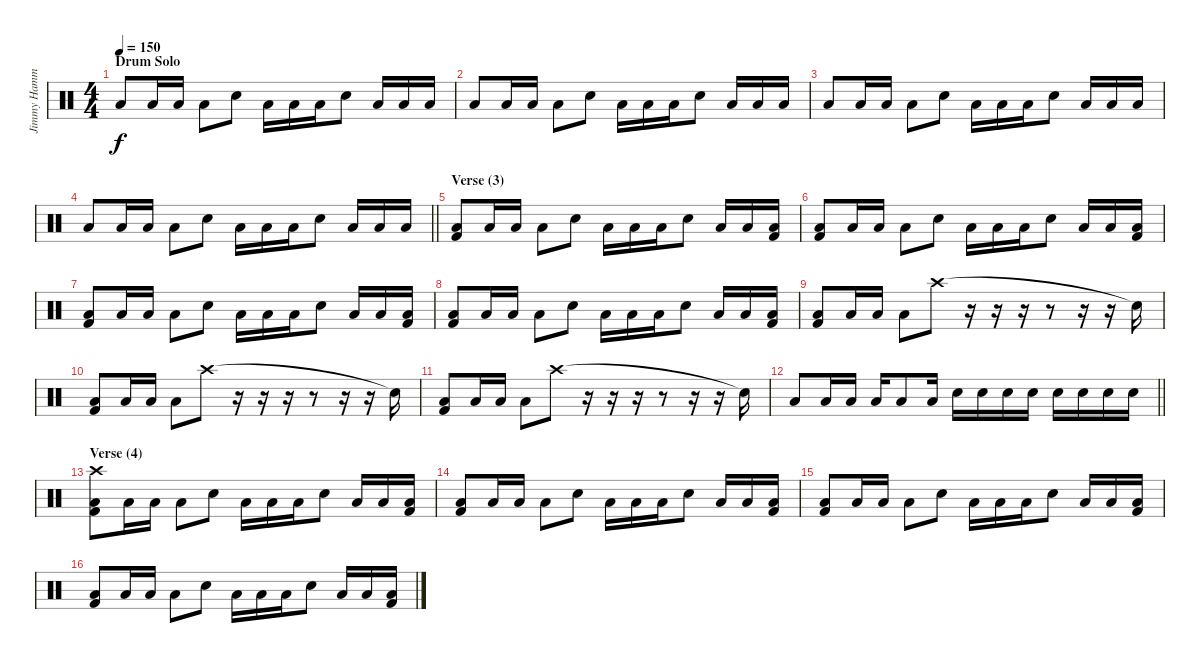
\track ("Jimmy Hammer" "Jimmy Hamm") {instrument percussion}
\staff {score}
\articulation defaults
\ts (4 4)
\section ("" "Drum Solo")
\tempo 150
\clef neutral
\ks c "Low Floor Tom (hit)".8{dy f} "Low Floor Tom (hit)".16 "Low Floor Tom (hit)".16 "Low Floor Tom (hit)".8 "Electric Snare (hit)".8 "Low Floor Tom (hit)".16 "Low Floor Tom (hit)".16 "Low Floor Tom (hit)".16 "Electric Snare (hit)".8 "Low Floor Tom (hit)".16 "Low Floor Tom (hit)".16 "Low Floor Tom (hit)".16
|
"Low Floor Tom (hit)".8 "Low Floor Tom (hit)".16 "Low Floor Tom (hit)".16 "Low Floor Tom (hit)".8 "Electric Snare (hit)".8 "Low Floor Tom (hit)".16 "Low Floor Tom (hit)".16 "Low Floor Tom (hit)".16 "Electric Snare (hit)".8 "Low Floor Tom (hit)".16 "Low Floor Tom (hit)".16 "Low Floor Tom (hit)".16 |
"Low Floor Tom (hit)".8 "Low Floor Tom (hit)".16 "Low Floor Tom (hit)".16 "Low Floor Tom (hit)".8 "Electric Snare (hit)".8 "Low Floor Tom (hit)".16 "Low Floor Tom (hit)".16 "Low Floor Tom (hit)".16 "Electric Snare (hit)".8 "Low Floor Tom (hit)".16 "Low Floor Tom (hit)".16 "Low Floor Tom (hit)".16 |
\barLineRight lightlight "Low Floor Tom (hit)".8 "Low Floor Tom (hit)".16 "Low Floor Tom (hit)".16 "Low Floor Tom (hit)".8 "Electric Snare (hit)".8 "Low Floor Tom (hit)".16 "Low Floor Tom (hit)".16 "Low Floor Tom (hit)".16 "Electric Snare (hit)".8 "Low Floor Tom (hit)".16 "Low Floor Tom (hit)".16 "Low Floor Tom (hit)".16
|
\section ("" "Verse (3)")
("Low Floor Tom (hit)" "Kick (hit) 2").8 "Low Floor Tom (hit)".16 "Low Floor Tom (hit)".16 "Low Floor Tom (hit)".8 "Electric Snare (hit)".8 "Low Floor Tom (hit)".16 "Low Floor Tom (hit)".16 "Low Floor Tom (hit)".16 "Electric Snare (hit)".8 "Low Floor Tom (hit)".16 "Low Floor Tom (hit)".16 ("Low Floor Tom (hit)" "Kick (hit) 2").16 |
("Low Floor Tom (hit)" "Kick (hit) 2").8 "Low Floor Tom (hit)".16 "Low Floor Tom (hit)".16 "Low Floor Tom (hit)".8 "Electric Snare (hit)".8 "Low Floor Tom (hit)".16 "Low Floor Tom (hit)".16 "Low Floor Tom (hit)".16 "Electric Snare (hit)".8 "Low Floor Tom (hit)".16 "Low Floor Tom (hit)".16 ("Low Floor Tom (hit)" "Kick (hit) 2").16 |
("Low Floor Tom (hit)" "Kick (hit) 2").8 "Low Floor Tom (hit)".16 "Low Floor Tom (hit)".16 "Low Floor Tom (hit)".8 "Electric Snare (hit)".8 "Low Floor Tom (hit)".16 "Low Floor Tom (hit)".16 "Low Floor Tom (hit)".16 "Electric Snare (hit)".8 "Low Floor Tom (hit)".16 "Low Floor Tom (hit)".16 ("Low Floor Tom (hit)" "Kick (hit) 2").16 |
("Low Floor Tom (hit)" "Kick (hit) 2").8 "Low Floor Tom (hit)".16 "Low Floor Tom (hit)".16 "Low Floor Tom (hit)".8 "Electric Snare (hit)".8 "Low Floor Tom (hit)".16 "Low Floor Tom (hit)".16 "Low Floor Tom (hit)".16 "Electric Snare (hit)".8 "Low Floor Tom (hit)".16 "Low Floor Tom (hit)".16 ("Low Floor Tom (hit)" "Kick (hit) 2").16 |
("Low Floor Tom (hit)" "Kick (hit) 2").8 "Low Floor Tom (hit)".16 "Low Floor Tom (hit)".16 "Low Floor Tom (hit)".8 "Crash high (hit)".8 r.16 r.16 r.16 r.8 r.16 r.16 "Snare (hit)"{t}.16 |
("Low Floor Tom (hit)" "Kick (hit) 2").8 "Low Floor Tom (hit)".16 "Low Floor Tom (hit)".16 "Low Floor Tom (hit)".8 "Crash high (hit)".8 r.16 r.16 r.16 r.8 r.16 r.16 "Snare (hit)"{t}.16 |
("Low Floor Tom (hit)" "Kick (hit) 2").8 "Low Floor Tom (hit)".16 "Low Floor Tom (hit)".16 "Low Floor Tom (hit)".8 "Crash high (hit)".8 r.16 r.16 r.16 r.8 r.16 r.16 "Snare (hit)"{t}.16 |
\barLineRight lightlight "Low Floor Tom (hit)".8 "Low Floor Tom (hit)".16 "Low Floor Tom (hit)".16 "Low Floor Tom (hit)".16 "Low Floor Tom (hit)".8 "Low Floor Tom (hit)".16 "Electric Snare (hit)".16 "Electric Snare (hit)".16 "Electric Snare (hit)".16 "Electric Snare (hit)".16 "Electric Snare (hit)".16 "Electric Snare (hit)".16 "Electric Snare (hit)".16 "Electric Snare (hit)".16
|
\section ("" "Verse (4)")
("Crash high (hit)" "Low Floor Tom (hit)" "Kick (hit) 2").8 "Low Floor Tom (hit)".16 "Low Floor Tom (hit)".16 "Low Floor Tom (hit)".8 "Electric Snare (hit)".8 "Low Floor Tom (hit)".16 "Low Floor Tom (hit)".16 "Low Floor Tom (hit)".16 "Electric Snare (hit)".8 "Low Floor Tom (hit)".16 "Low Floor Tom (hit)".16 ("Low Floor Tom (hit)" "Kick (hit) 2").16 |
("Low Floor Tom (hit)" "Kick (hit) 2").8 "Low Floor Tom (hit)".16 "Low Floor Tom (hit)".16 "Low Floor Tom (hit)".8 "Electric Snare (hit)".8 "Low Floor Tom (hit)".16 "Low Floor Tom (hit)".16 "Low Floor Tom (hit)".16 "Electric Snare (hit)".8 "Low Floor Tom (hit)".16 "Low Floor Tom (hit)".16 ("Low Floor Tom (hit)" "Kick (hit) 2").16 |
("Low Floor Tom (hit)" "Kick (hit) 2").8 "Low Floor Tom (hit)".16 "Low Floor Tom (hit)".16 "Low Floor Tom (hit)".8 "Electric Snare (hit)".8 "Low Floor Tom (hit)".16 "Low Floor Tom (hit)".16 "Low Floor Tom (hit)".16 "Electric Snare (hit)".8 "Low Floor Tom (hit)".16 "Low Floor Tom (hit)".16 ("Low Floor Tom (hit)" "Kick (hit) 2").16 |
("Low Floor Tom (hit)" "Kick (hit) 2").8 "Low Floor Tom (hit)".16 "Low Floor Tom (hit)".16 "Low Floor Tom (hit)".8 "Electric Snare (hit)".8 "Low Floor Tom (hit)".16 "Low Floor Tom (hit)".16 "Low Floor Tom (hit)".16 "Electric Snare (hit)".8 "Low Floor Tom (hit)".16 "Low Floor Tom (hit)".16 ("Low Floor Tom (hit)" "Kick (hit) 2").16
